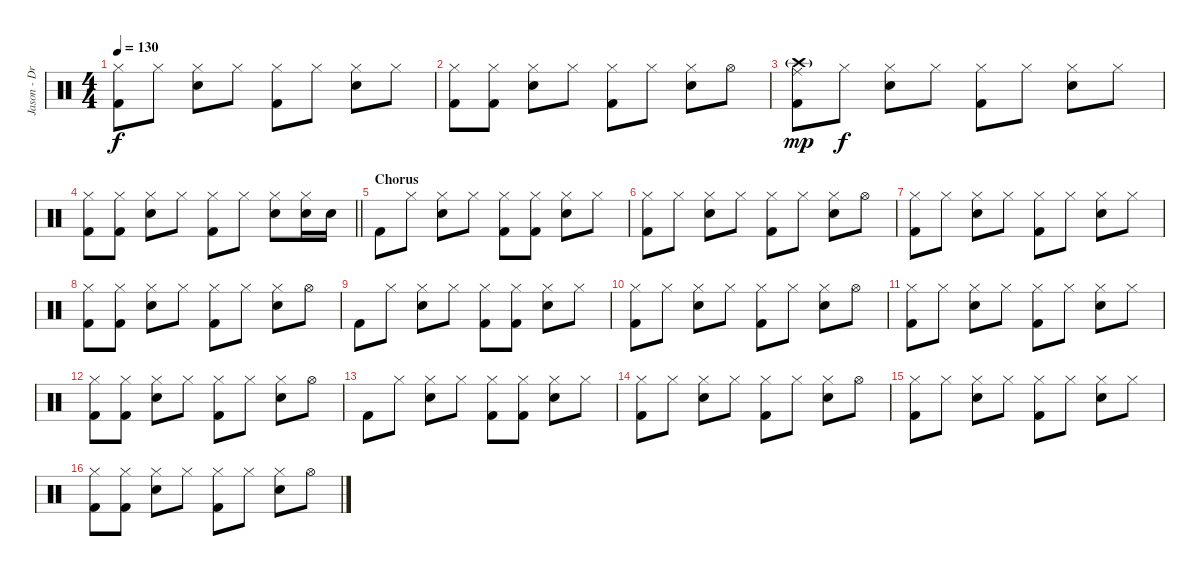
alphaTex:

\track ("Jason - Drums" "Jason - Dr") {instrument percussion}
\staff {score}
\articulation defaults
\ts (4 4)
\tempo 130
\clef neutral
\ks c
("Hi-Hat (closed)" "Kick (hit) 2").8{dy f} "Hi-Hat (closed)".8 ("Hi-Hat (closed)" "Snare (hit) 2").8 "Hi-Hat (closed)".8 ("Hi-Hat (closed)" "Kick (hit) 2").8 "Hi-Hat (closed)".8 ("Hi-Hat (closed)" "Snare (hit) 2").8 "Hi-Hat (closed)".8 |
("Hi-Hat (closed)" "Kick (hit) 2").8 ("Hi-Hat (closed)" "Kick (hit) 2").8 ("Hi-Hat (closed)" "Snare (hit) 2").8 "Hi-Hat (closed)".8 ("Hi-Hat (closed)" "Kick (hit) 2").8 "Hi-Hat (closed)".8 ("Hi-Hat (closed)" "Snare (hit) 2").8 "Hi-Hat (open)".8 |
("Crash high (hit)"{g} "Ride (middle)" "Kick (hit) 2").8{dy mp} "Hi-Hat (closed)".8{dy f} ("Hi-Hat (closed)" "Snare (hit) 2").8 "Hi-Hat (closed)".8 ("Hi-Hat (closed)" "Kick (hit) 2").8 "Hi-Hat (closed)".8 ("Hi-Hat (closed)" "Snare (hit) 2").8 "Hi-Hat (closed)".8 |
\barLineRight lightlight
("Hi-Hat (closed)" "Kick (hit) 2").8 ("Hi-Hat (closed)" "Kick (hit) 2").8 ("Hi-Hat (closed)" "Snare (hit) 2").8 "Hi-Hat (closed)".8 ("Hi-Hat (closed)" "Kick (hit) 2").8 "Hi-Hat (closed)".8 ("Hi-Hat (closed)" "Snare (hit) 2").8 ("Hi-Hat (closed)" "Snare (hit) 2").16 "Snare (hit) 2".16 |
\section ("" "Chorus")
"Kick (hit) 2".8 "Hi-Hat (closed)".8 ("Hi-Hat (closed)" "Snare (hit) 2").8 "Hi-Hat (closed)".8 ("Hi-Hat (closed)" "Kick (hit) 2").8 ("Hi-Hat (closed)" "Kick (hit) 2").8 ("Hi-Hat (closed)" "Snare (hit) 2").8 "Hi-Hat (closed)".8 |
("Hi-Hat (closed)" "Kick (hit) 2").8 "Hi-Hat (closed)".8 ("Hi-Hat (closed)" "Snare (hit) 2").8 "Hi-Hat (closed)".8 ("Hi-Hat (closed)" "Kick (hit) 2").8 "Hi-Hat (closed)".8 ("Hi-Hat (closed)" "Snare (hit) 2").8 "Hi-Hat (open)".8 |
("Hi-Hat (closed)" "Kick (hit) 2").8 "Hi-Hat (closed)".8 ("Hi-Hat (closed)" "Snare (hit) 2").8 "Hi-Hat (closed)".8 ("Hi-Hat (closed)" "Kick (hit) 2").8 "Hi-Hat (closed)".8 ("Hi-Hat (closed)" "Snare (hit) 2").8 "Hi-Hat (closed)".8 |
("Hi-Hat (closed)" "Kick (hit) 2").8 ("Hi-Hat (closed)" "Kick (hit) 2").8 ("Hi-Hat (closed)" "Snare (hit) 2").8 "Hi-Hat (closed)".8 ("Hi-Hat (closed)" "Kick (hit) 2").8 "Hi-Hat (closed)".8 ("Hi-Hat (closed)" "Snare (hit) 2").8 "Hi-Hat (open)".8 |
"Kick (hit) 2".8 "Hi-Hat (closed)".8 ("Hi-Hat (closed)" "Snare (hit) 2").8 "Hi-Hat (closed)".8 ("Hi-Hat (closed)" "Kick (hit) 2").8 ("Hi-Hat (closed)" "Kick (hit) 2").8 ("Hi-Hat (closed)" "Snare (hit) 2").8 "Hi-Hat (closed)".8 |
("Hi-Hat (closed)" "Kick (hit) 2").8 "Hi-Hat (closed)".8 ("Hi-Hat (closed)" "Snare (hit) 2").8 "Hi-Hat (closed)".8 ("Hi-Hat (closed)" "Kick (hit) 2").8 "Hi-Hat (closed)".8 ("Hi-Hat (closed)" "Snare (hit) 2").8 "Hi-Hat (open)".8 |
("Hi-Hat (closed)" "Kick (hit) 2").8 "Hi-Hat (closed)".8 ("Hi-Hat (closed)" "Snare (hit) 2").8 "Hi-Hat (closed)".8 ("Hi-Hat (closed)" "Kick (hit) 2").8 "Hi-Hat (closed)".8 ("Hi-Hat (closed)" "Snare (hit) 2").8 "Hi-Hat (closed)".8 |
("Hi-Hat (closed)" "Kick (hit) 2").8 ("Hi-Hat (closed)" "Kick (hit) 2").8 ("Hi-Hat (closed)" "Snare (hit) 2").8 "Hi-Hat (closed)".8 ("Hi-Hat (closed)" "Kick (hit) 2").8 "Hi-Hat (closed)".8 ("Hi-Hat (closed)" "Snare (hit) 2").8 "Hi-Hat (open)".8 |
"Kick (hit) 2".8 "Hi-Hat (closed)".8 ("Hi-Hat (closed)" "Snare (hit) 2").8 "Hi-Hat (closed)".8 ("Hi-Hat (closed)" "Kick (hit) 2").8 ("Hi-Hat (closed)" "Kick (hit) 2").8 ("Hi-Hat (closed)" "Snare (hit) 2").8 "Hi-Hat (closed)".8 |
("Hi-Hat (closed)" "Kick (hit) 2").8 "Hi-Hat (closed)".8 ("Hi-Hat (closed)" "Snare (hit) 2").8 "Hi-Hat (closed)".8 ("Hi-Hat (closed)" "Kick (hit) 2").8 "Hi-Hat (closed)".8 ("Hi-Hat (closed)" "Snare (hit) 2").8 "Hi-Hat (open)".8 |
("Hi-Hat (closed)" "Kick (hit) 2").8 "Hi-Hat (closed)".8 ("Hi-Hat (closed)" "Snare (hit) 2").8 "Hi-Hat (closed)".8 ("Hi-Hat (closed)" "Kick (hit) 2").8 "Hi-Hat (closed)".8 ("Hi-Hat (closed)" "Snare (hit) 2").8 "Hi-Hat (closed)".8 |
("Hi-Hat (closed)" "Kick (hit) 2").8 ("Hi-Hat (closed)" "Kick (hit) 2").8 ("Hi-Hat (closed)" "Snare (hit) 2").8 "Hi-Hat (closed)".8 ("Hi-Hat (closed)" "Kick (hit) 2").8 "Hi-Hat (closed)".8 ("Hi-Hat (closed)" "Snare (hit) 2").8 "Hi-Hat (open)".8
